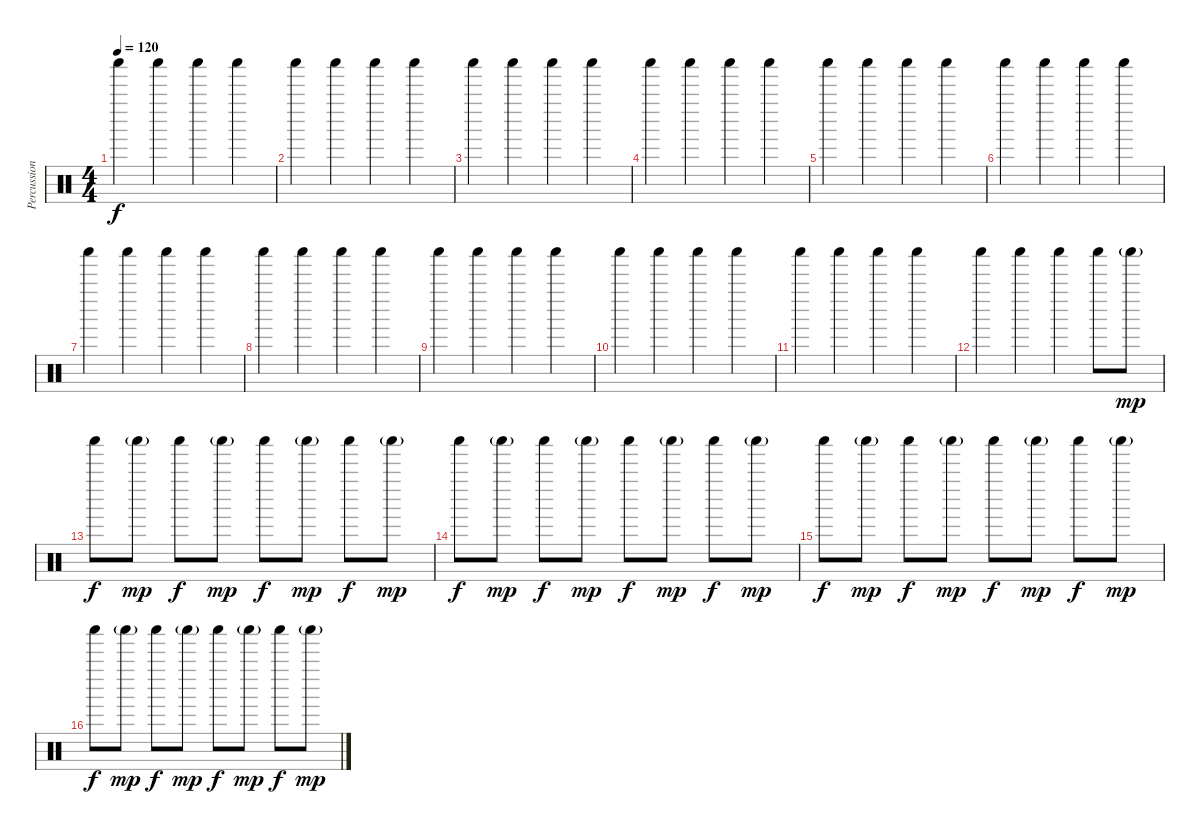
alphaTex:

\track ("Percussion" "Percussion") {instrument percussion}
\staff {score}
\articulation defaults
\ts (4 4)
\tempo 120
\clef neutral
\ks c "Shaker (hit)".4{dy f volume 2 balance 16} "Shaker (hit)".4{balance 0} "Shaker (hit)".4{balance 16} "Shaker (hit)".4{balance 0}
|
"Shaker (hit)".4{volume 8 balance 16} "Shaker (hit)".4{balance 0} "Shaker (hit)".4{balance 16} "Shaker (hit)".4{balance 0} |
"Shaker (hit)".4{balance 16} "Shaker (hit)".4{balance 0} "Shaker (hit)".4{balance 16} "Shaker (hit)".4{balance 0} |
"Shaker (hit)".4{balance 16} "Shaker (hit)".4{balance 0} "Shaker (hit)".4{balance 16} "Shaker (hit)".4{balance 0} |
"Shaker (hit)".4{balance 16} "Shaker (hit)".4{balance 0} "Shaker (hit)".4{balance 16} "Shaker (hit)".4{balance 0} |
"Shaker (hit)".4{balance 16} "Shaker (hit)".4{balance 0} "Shaker (hit)".4{balance 16} "Shaker (hit)".4{balance 0} |
"Shaker (hit)".4{balance 16} "Shaker (hit)".4{balance 0} "Shaker (hit)".4{balance 16} "Shaker (hit)".4{balance 0} |
"Shaker (hit)".4{balance 16} "Shaker (hit)".4{balance 0} "Shaker (hit)".4{balance 16} "Shaker (hit)".4{balance 0} |
"Shaker (hit)".4{balance 16} "Shaker (hit)".4{balance 0} "Shaker (hit)".4{balance 16} "Shaker (hit)".4{balance 0} |
"Shaker (hit)".4{balance 16} "Shaker (hit)".4{balance 0} "Shaker (hit)".4{balance 16} "Shaker (hit)".4{balance 0} |
"Shaker (hit)".4{balance 16} "Shaker (hit)".4{balance 0} "Shaker (hit)".4{balance 16} "Shaker (hit)".4{balance 0} |
"Shaker (hit)".4{balance 16} "Shaker (hit)".4{balance 0} "Shaker (hit)".4{balance 16} "Shaker (hit)".8{balance 0} "Shaker (hit)"{g}.8{dy mp balance 8} |
"Shaker (hit)".8{dy f balance 16} "Shaker (hit)"{g}.8{dy mp} "Shaker (hit)".8{dy f balance 0} "Shaker (hit)"{g}.8{dy mp} "Shaker (hit)".8{dy f balance 16} "Shaker (hit)"{g}.8{dy mp} "Shaker (hit)".8{dy f balance 0} "Shaker (hit)"{g}.8{dy mp} |
"Shaker (hit)".8{dy f balance 16} "Shaker (hit)"{g}.8{dy mp} "Shaker (hit)".8{dy f balance 0} "Shaker (hit)"{g}.8{dy mp} "Shaker (hit)".8{dy f balance 16} "Shaker (hit)"{g}.8{dy mp} "Shaker (hit)".8{dy f balance 0} "Shaker (hit)"{g}.8{dy mp} |
"Shaker (hit)".8{dy f balance 16} "Shaker (hit)"{g}.8{dy mp} "Shaker (hit)".8{dy f balance 0} "Shaker (hit)"{g}.8{dy mp} "Shaker (hit)".8{dy f balance 16} "Shaker (hit)"{g}.8{dy mp} "Shaker (hit)".8{dy f balance 0} "Shaker (hit)"{g}.8{dy mp} |
"Shaker (hit)".8{dy f balance 16} "Shaker (hit)"{g}.8{dy mp} "Shaker (hit)".8{dy f balance 0} "Shaker (hit)"{g}.8{dy mp} "Shaker (hit)".8{dy f balance 16} "Shaker (hit)"{g}.8{dy mp} "Shaker (hit)".8{dy f balance 0} "Shaker (hit)"{g}.8{dy mp}
